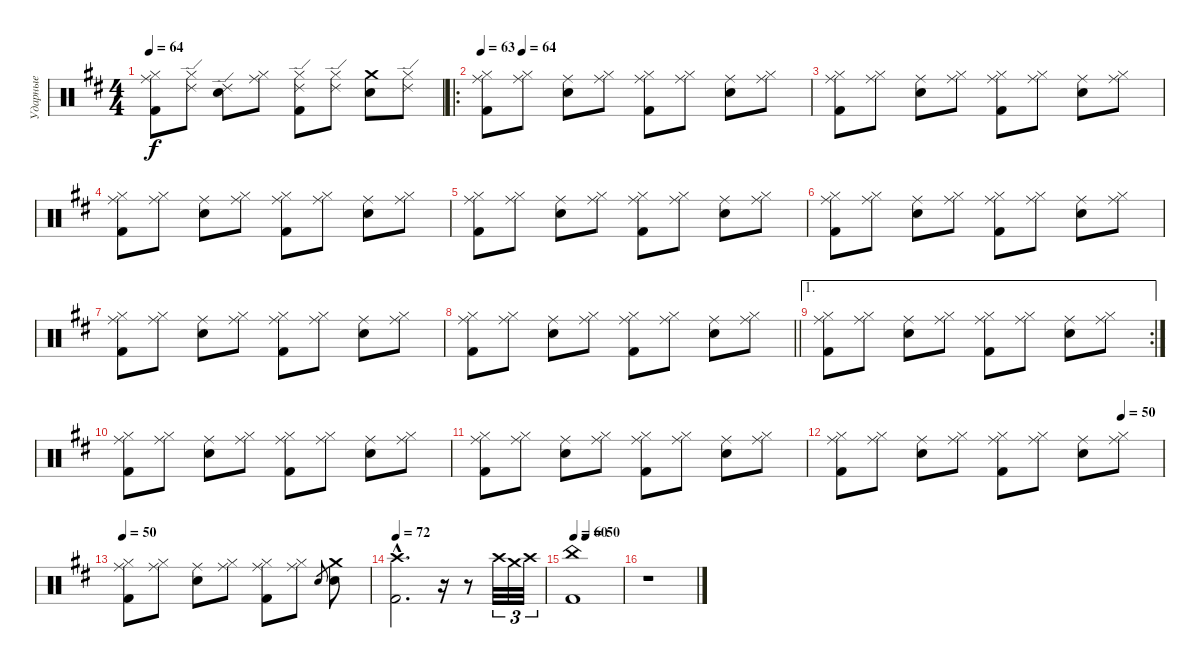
\track ("Ударные" "Ударные") {instrument percussion}
\staff {score}
\articulation defaults
\ts (4 4)
\tempo 64
\clef neutral
\ks d
("Ride (middle)" "Hi-Hat (closed)" "Kick (hit) 2").8{dy f} ("Ride (edge) 2" "Hi-Hat (closed)").8 ("Ride (edge) 2" "Snare (hit) 2").8 ("Ride (middle)" "Hi-Hat (closed)").8 ("Ride (edge) 2" "Hi-Hat (closed)" "Kick (hit) 2").8 ("Ride (edge) 2" "Hi-Hat (closed)").8 ("Crash medium (hit)" "Snare (hit) 2").8 ("Ride (edge) 2" "Hi-Hat (closed)").8 |
\ro
\tempo 63
\tempo (64 0.125)
("Ride (middle)" "Hi-Hat (closed)" "Kick (hit) 2").8 ("Ride (middle)" "Hi-Hat (closed)").8 ("Ride (middle)" "Snare (hit) 2").8 ("Ride (middle)" "Hi-Hat (closed)").8 ("Ride (middle)" "Hi-Hat (closed)" "Kick (hit) 2").8 ("Ride (middle)" "Hi-Hat (closed)").8 ("Ride (middle)" "Snare (hit) 2").8 ("Ride (middle)" "Hi-Hat (closed)").8 |
("Ride (middle)" "Hi-Hat (closed)" "Kick (hit) 2").8 ("Ride (middle)" "Hi-Hat (closed)").8 ("Ride (middle)" "Snare (hit) 2").8 ("Ride (middle)" "Hi-Hat (closed)").8 ("Ride (middle)" "Hi-Hat (closed)" "Kick (hit) 2").8 ("Ride (middle)" "Hi-Hat (closed)").8 ("Ride (middle)" "Snare (hit) 2").8 ("Ride (middle)" "Hi-Hat (closed)").8 |
("Ride (middle)" "Hi-Hat (closed)" "Kick (hit) 2").8 ("Ride (middle)" "Hi-Hat (closed)").8 ("Ride (middle)" "Snare (hit) 2").8 ("Ride (middle)" "Hi-Hat (closed)").8 ("Ride (middle)" "Hi-Hat (closed)" "Kick (hit) 2").8 ("Ride (middle)" "Hi-Hat (closed)").8 ("Ride (middle)" "Snare (hit) 2").8 ("Ride (middle)" "Hi-Hat (closed)").8 |
("Ride (middle)" "Hi-Hat (closed)" "Kick (hit) 2").8 ("Ride (middle)" "Hi-Hat (closed)").8 ("Ride (middle)" "Snare (hit) 2").8 ("Ride (middle)" "Hi-Hat (closed)").8 ("Ride (middle)" "Hi-Hat (closed)" "Kick (hit) 2").8 ("Ride (middle)" "Hi-Hat (closed)").8 ("Ride (middle)" "Snare (hit) 2").8 ("Ride (middle)" "Hi-Hat (closed)").8 |
("Ride (middle)" "Hi-Hat (closed)" "Kick (hit) 2").8 ("Ride (middle)" "Hi-Hat (closed)").8 ("Ride (middle)" "Snare (hit) 2").8 ("Ride (middle)" "Hi-Hat (closed)").8 ("Ride (middle)" "Hi-Hat (closed)" "Kick (hit) 2").8 ("Ride (middle)" "Hi-Hat (closed)").8 ("Ride (middle)" "Snare (hit) 2").8 ("Ride (middle)" "Hi-Hat (closed)").8 |
("Ride (middle)" "Hi-Hat (closed)" "Kick (hit) 2").8 ("Ride (middle)" "Hi-Hat (closed)").8 ("Ride (middle)" "Snare (hit) 2").8 ("Ride (middle)" "Hi-Hat (closed)").8 ("Ride (middle)" "Hi-Hat (closed)" "Kick (hit) 2").8 ("Ride (middle)" "Hi-Hat (closed)").8 ("Ride (middle)" "Snare (hit) 2").8 ("Ride (middle)" "Hi-Hat (closed)").8 |
\barLineRight lightlight
("Ride (middle)" "Hi-Hat (closed)" "Kick (hit) 2").8 ("Ride (middle)" "Hi-Hat (closed)").8 ("Ride (middle)" "Snare (hit) 2").8 ("Ride (middle)" "Hi-Hat (closed)").8 ("Ride (middle)" "Hi-Hat (closed)" "Kick (hit) 2").8 ("Ride (middle)" "Hi-Hat (closed)").8 ("Ride (middle)" "Snare (hit) 2").8 ("Ride (middle)" "Hi-Hat (closed)").8 |
\ae 1
\rc 2
("Ride (middle)" "Hi-Hat (closed)" "Kick (hit) 2").8 ("Ride (middle)" "Hi-Hat (closed)").8 ("Ride (middle)" "Snare (hit) 2").8 ("Ride (middle)" "Hi-Hat (closed)").8 ("Ride (middle)" "Hi-Hat (closed)" "Kick (hit) 2").8 ("Ride (middle)" "Hi-Hat (closed)").8 ("Ride (middle)" "Snare (hit) 2").8 ("Ride (middle)" "Hi-Hat (closed)").8 |
("Ride (middle)" "Hi-Hat (closed)" "Kick (hit) 2").8 ("Ride (middle)" "Hi-Hat (closed)").8 ("Ride (middle)" "Snare (hit) 2").8 ("Ride (middle)" "Hi-Hat (closed)").8 ("Ride (middle)" "Hi-Hat (closed)" "Kick (hit) 2").8 ("Ride (middle)" "Hi-Hat (closed)").8 ("Ride (middle)" "Snare (hit) 2").8 ("Ride (middle)" "Hi-Hat (closed)").8 |
("Ride (middle)" "Hi-Hat (closed)" "Kick (hit) 2").8 ("Ride (middle)" "Hi-Hat (closed)").8 ("Ride (middle)" "Snare (hit) 2").8 ("Ride (middle)" "Hi-Hat (closed)").8 ("Ride (middle)" "Hi-Hat (closed)" "Kick (hit) 2").8 ("Ride (middle)" "Hi-Hat (closed)").8 ("Ride (middle)" "Snare (hit) 2").8 ("Ride (middle)" "Hi-Hat (closed)").8 |
\tempo (50 0.875)
("Ride (middle)" "Hi-Hat (closed)" "Kick (hit) 2").8 ("Ride (middle)" "Hi-Hat (closed)").8 ("Ride (middle)" "Snare (hit) 2").8 ("Ride (middle)" "Hi-Hat (closed)").8 ("Ride (middle)" "Hi-Hat (closed)" "Kick (hit) 2").8 ("Ride (middle)" "Hi-Hat (closed)").8 ("Ride (middle)" "Snare (hit) 2").8 ("Ride (middle)" "Hi-Hat (closed)").8 |
\tempo 50
("Ride (middle)" "Hi-Hat (closed)" "Kick (hit) 2").8 ("Ride (middle)" "Hi-Hat (closed)").8 ("Ride (middle)" "Snare (hit) 2").8 ("Ride (middle)" "Hi-Hat (closed)").8 ("Ride (middle)" "Hi-Hat (closed)" "Kick (hit) 2").8 ("Ride (middle)" "Hi-Hat (closed)").8 "Snare (hit) 2".8{gr} ("Crash medium (hit)" "Snare (hit) 2").8 |
\tempo 72
("Crash high (hit)"{hac} "Kick (hit) 2"{hac}).2{d} r.16 r.8 "Crash high (hit)".32{tu (3 2)} "Crash medium (hit)".32{tu (3 2)} "Crash high (hit)".32{tu (3 2)} |
\tempo 60
\tempo (50 0.25)
("China (hit)" "Kick (hit) 2").1 |
r.1
